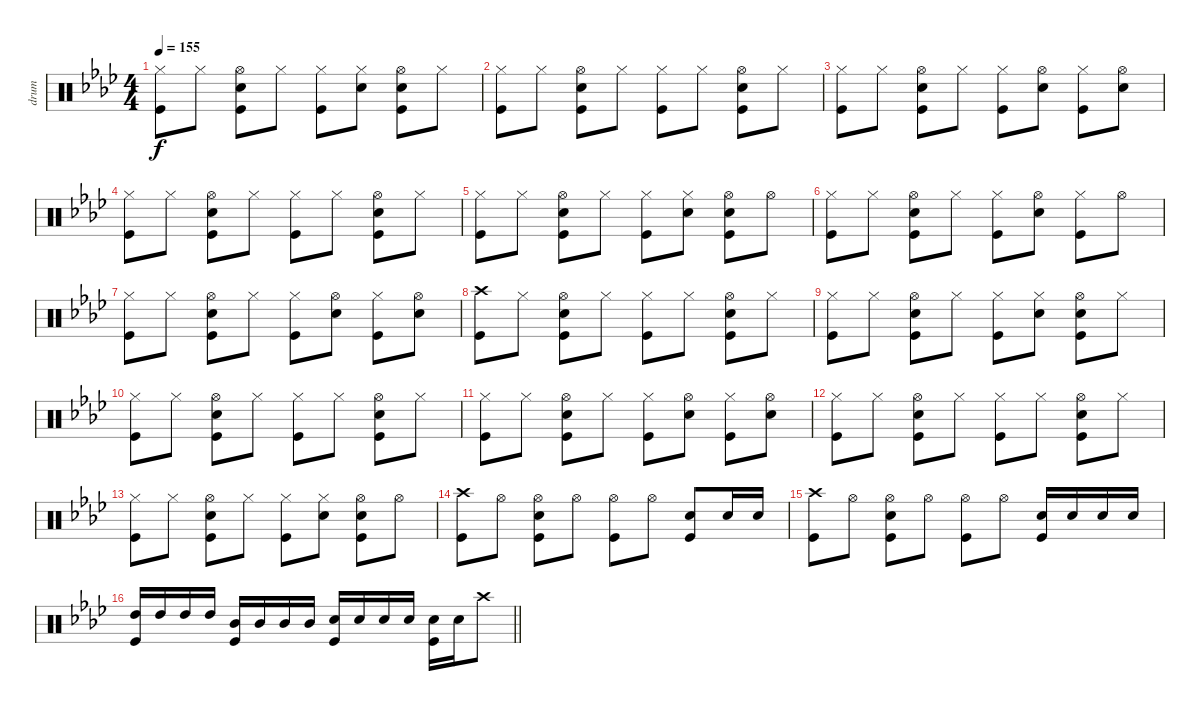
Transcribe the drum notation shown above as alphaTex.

\track ("drum" "drum") {instrument percussion}
\staff {score}
\articulation defaults
\ts (4 4)
\tempo 155
\clef neutral
\ks ab
("Hi-Hat (closed)" "Kick (hit)").8{dy f} "Hi-Hat (closed)".8 ("Hi-Hat (open)" "Snare (hit) 2" "Kick (hit)").8 "Hi-Hat (closed)".8 ("Hi-Hat (closed)" "Kick (hit)").8 ("Hi-Hat (closed)" "Snare (hit) 2").8 ("Hi-Hat (open)" "Snare (hit) 2" "Kick (hit)").8 "Hi-Hat (closed)".8 |
("Hi-Hat (closed)" "Kick (hit)").8 "Hi-Hat (closed)".8 ("Hi-Hat (open)" "Snare (hit) 2" "Kick (hit)").8 "Hi-Hat (closed)".8 ("Hi-Hat (closed)" "Kick (hit)").8 "Hi-Hat (closed)".8 ("Hi-Hat (open)" "Snare (hit) 2" "Kick (hit)").8 "Hi-Hat (closed)".8 |
("Hi-Hat (closed)" "Kick (hit)").8 "Hi-Hat (closed)".8 ("Hi-Hat (open)" "Snare (hit) 2" "Kick (hit)").8 "Hi-Hat (closed)".8 ("Hi-Hat (closed)" "Kick (hit)").8 ("Hi-Hat (open)" "Snare (hit) 2").8 ("Hi-Hat (closed)" "Kick (hit)").8 ("Hi-Hat (open)" "Snare (hit) 2").8 |
("Hi-Hat (closed)" "Kick (hit)").8 "Hi-Hat (closed)".8 ("Hi-Hat (open)" "Snare (hit) 2" "Kick (hit)").8 "Hi-Hat (closed)".8 ("Hi-Hat (closed)" "Kick (hit)").8 "Hi-Hat (closed)".8 ("Hi-Hat (open)" "Snare (hit) 2" "Kick (hit)").8 "Hi-Hat (closed)".8 |
("Hi-Hat (closed)" "Kick (hit)").8 "Hi-Hat (closed)".8 ("Hi-Hat (open)" "Snare (hit) 2" "Kick (hit)").8 "Hi-Hat (closed)".8 ("Hi-Hat (closed)" "Kick (hit)").8 ("Hi-Hat (closed)" "Snare (hit) 2").8 ("Hi-Hat (open)" "Snare (hit) 2" "Kick (hit)").8 "Hi-Hat (open)".8 |
("Hi-Hat (closed)" "Kick (hit)").8 "Hi-Hat (closed)".8 ("Hi-Hat (open)" "Snare (hit) 2" "Kick (hit)").8 "Hi-Hat (closed)".8 ("Hi-Hat (closed)" "Kick (hit)").8 ("Hi-Hat (open)" "Snare (hit) 2").8 ("Hi-Hat (closed)" "Kick (hit)").8 "Hi-Hat (open)".8 |
("Hi-Hat (closed)" "Kick (hit)").8 "Hi-Hat (closed)".8 ("Hi-Hat (open)" "Snare (hit) 2" "Kick (hit)").8 "Hi-Hat (closed)".8 ("Hi-Hat (closed)" "Kick (hit)").8 ("Hi-Hat (open)" "Snare (hit) 2").8 ("Hi-Hat (closed)" "Kick (hit)").8 ("Hi-Hat (open)" "Snare (hit) 2").8 |
("Crash high (hit)" "Kick (hit)").8 "Hi-Hat (closed)".8 ("Hi-Hat (open)" "Snare (hit) 2" "Kick (hit)").8 "Hi-Hat (closed)".8 ("Hi-Hat (closed)" "Kick (hit)").8 "Hi-Hat (closed)".8 ("Hi-Hat (open)" "Snare (hit) 2" "Kick (hit)").8 "Hi-Hat (closed)".8 |
("Hi-Hat (closed)" "Kick (hit)").8 "Hi-Hat (closed)".8 ("Hi-Hat (open)" "Snare (hit) 2" "Kick (hit)").8 "Hi-Hat (closed)".8 ("Hi-Hat (closed)" "Kick (hit)").8 ("Hi-Hat (closed)" "Snare (hit) 2").8 ("Hi-Hat (open)" "Snare (hit) 2" "Kick (hit)").8 "Hi-Hat (closed)".8 |
("Hi-Hat (closed)" "Kick (hit)").8 "Hi-Hat (closed)".8 ("Hi-Hat (open)" "Snare (hit) 2" "Kick (hit)").8 "Hi-Hat (closed)".8 ("Hi-Hat (closed)" "Kick (hit)").8 "Hi-Hat (closed)".8 ("Hi-Hat (open)" "Snare (hit) 2" "Kick (hit)").8 "Hi-Hat (closed)".8 |
("Hi-Hat (closed)" "Kick (hit)").8 "Hi-Hat (closed)".8 ("Hi-Hat (open)" "Snare (hit) 2" "Kick (hit)").8 "Hi-Hat (closed)".8 ("Hi-Hat (closed)" "Kick (hit)").8 ("Hi-Hat (open)" "Snare (hit) 2").8 ("Hi-Hat (closed)" "Kick (hit)").8 ("Hi-Hat (open)" "Snare (hit) 2").8 |
("Hi-Hat (closed)" "Kick (hit)").8 "Hi-Hat (closed)".8 ("Hi-Hat (open)" "Snare (hit) 2" "Kick (hit)").8 "Hi-Hat (closed)".8 ("Hi-Hat (closed)" "Kick (hit)").8 "Hi-Hat (closed)".8 ("Hi-Hat (open)" "Snare (hit) 2" "Kick (hit)").8 "Hi-Hat (closed)".8 |
("Hi-Hat (closed)" "Kick (hit)").8 "Hi-Hat (closed)".8 ("Hi-Hat (open)" "Snare (hit) 2" "Kick (hit)").8 "Hi-Hat (closed)".8 ("Hi-Hat (closed)" "Kick (hit)").8 ("Hi-Hat (closed)" "Snare (hit) 2").8 ("Hi-Hat (open)" "Snare (hit) 2" "Kick (hit)").8 "Hi-Hat (open)".8 |
("Crash high (hit)" "Kick (hit)").8 "Hi-Hat (open)".8 ("Hi-Hat (open)" "Snare (hit) 2" "Kick (hit)").8 "Hi-Hat (open)".8 ("Hi-Hat (open)" "Kick (hit)").8 "Hi-Hat (open)".8 ("Snare (hit) 2" "Kick (hit)").8 "Snare (hit) 2".16 "Snare (hit) 2".16 |
("Crash high (hit)" "Kick (hit)").8 "Hi-Hat (open)".8 ("Hi-Hat (open)" "Snare (hit) 2" "Kick (hit)").8 "Hi-Hat (open)".8 ("Hi-Hat (open)" "Kick (hit)").8 "Hi-Hat (open)".8 ("Snare (hit) 2" "Kick (hit)").16 "Snare (hit) 2".16 "Snare (hit) 2".16 "Snare (hit) 2".16 |
\barLineRight lightlight
("High Tom (hit)" "Kick (hit)").16 "High Tom (hit)".16 "High Tom (hit)".16 "High Tom (hit)".16 ("Mid Tom (hit)" "Kick (hit)").16 "Mid Tom (hit)".16 "Mid Tom (hit)".16 "Mid Tom (hit)".16 ("Snare (hit) 2" "Kick (hit)").16 "Snare (hit) 2".16 "Snare (hit) 2".16 "Snare (hit) 2".16 ("Snare (hit) 2" "Kick (hit)").16 "Snare (hit) 2".16 "Crash high (hit)".8
